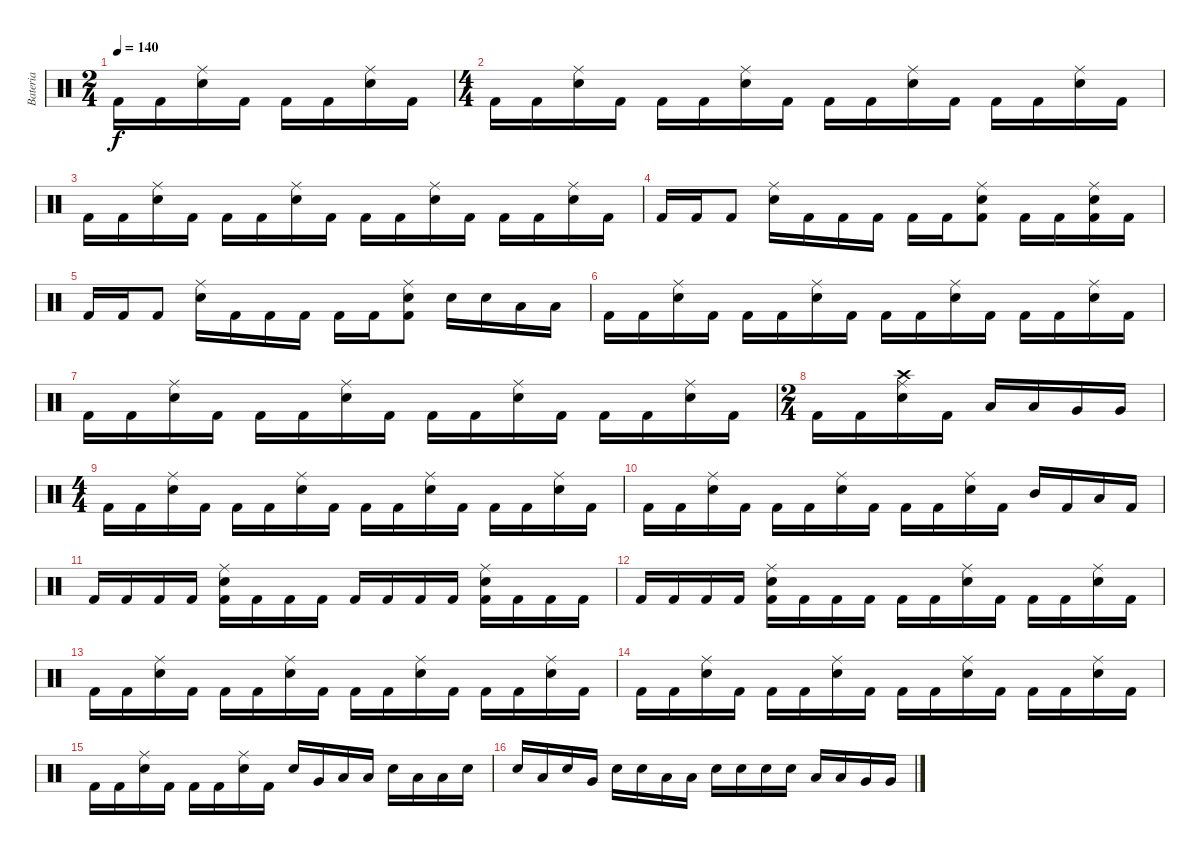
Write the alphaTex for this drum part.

\track ("Bateria" "Bateria") {instrument percussion}
\staff {score}
\articulation defaults
\ts (2 4)
\tempo 140
\clef neutral
\ks c "Kick (hit) 2".16{dy f} "Kick (hit) 2".16
("Electric Snare (hit)" "Ride (middle)").16 "Kick (hit) 2".16 "Kick (hit) 2".16 "Kick (hit) 2".16 ("Electric Snare (hit)" "Ride (middle)").16 "Kick (hit) 2".16 |
\ts (4 4)
"Kick (hit) 2".16 "Kick (hit) 2".16 ("Electric Snare (hit)" "Ride (middle)").16 "Kick (hit) 2".16 "Kick (hit) 2".16 "Kick (hit) 2".16 ("Electric Snare (hit)" "Ride (middle)").16 "Kick (hit) 2".16 "Kick (hit) 2".16 "Kick (hit) 2".16 ("Electric Snare (hit)" "Ride (middle)").16 "Kick (hit) 2".16 "Kick (hit) 2".16 "Kick (hit) 2".16 ("Electric Snare (hit)" "Ride (middle)").16 "Kick (hit) 2".16 |
"Kick (hit) 2".16 "Kick (hit) 2".16 ("Electric Snare (hit)" "Ride (middle)").16 "Kick (hit) 2".16 "Kick (hit) 2".16 "Kick (hit) 2".16 ("Electric Snare (hit)" "Ride (middle)").16 "Kick (hit) 2".16 "Kick (hit) 2".16 "Kick (hit) 2".16 ("Electric Snare (hit)" "Ride (middle)").16 "Kick (hit) 2".16 "Kick (hit) 2".16 "Kick (hit) 2".16 ("Electric Snare (hit)" "Ride (middle)").16 "Kick (hit) 2".16 |
"Kick (hit) 2".16 "Kick (hit) 2".16 "Kick (hit) 2".8 ("Electric Snare (hit)" "Ride (middle)").16 "Kick (hit) 2".16 "Kick (hit) 2".16 "Kick (hit) 2".16 "Kick (hit) 2".16 "Kick (hit) 2".16 ("Kick (hit) 2" "Electric Snare (hit)" "Ride (middle)").8 "Kick (hit) 2".16 "Kick (hit) 2".16 ("Kick (hit) 2" "Electric Snare (hit)" "Ride (middle)").16 "Kick (hit) 2".16 |
"Kick (hit) 2".16 "Kick (hit) 2".16 "Kick (hit) 2".8 ("Electric Snare (hit)" "Ride (middle)").16 "Kick (hit) 2".16 "Kick (hit) 2".16 "Kick (hit) 2".16 "Kick (hit) 2".16 "Kick (hit) 2".16 ("Kick (hit) 2" "Electric Snare (hit)" "Ride (middle)").8 "Electric Snare (hit)".16 "Electric Snare (hit)".16 "Low Tom (hit)".16 "Low Tom (hit)".16 |
"Kick (hit) 2".16 "Kick (hit) 2".16 ("Electric Snare (hit)" "Ride (middle)").16 "Kick (hit) 2".16 "Kick (hit) 2".16 "Kick (hit) 2".16 ("Electric Snare (hit)" "Ride (middle)").16 "Kick (hit) 2".16 "Kick (hit) 2".16 "Kick (hit) 2".16 ("Electric Snare (hit)" "Ride (middle)").16 "Kick (hit) 2".16 "Kick (hit) 2".16 "Kick (hit) 2".16 ("Electric Snare (hit)" "Ride (middle)").16 "Kick (hit) 2".16 |
"Kick (hit) 2".16 "Kick (hit) 2".16 ("Electric Snare (hit)" "Ride (middle)").16 "Kick (hit) 2".16 "Kick (hit) 2".16 "Kick (hit) 2".16 ("Electric Snare (hit)" "Ride (middle)").16 "Kick (hit) 2".16 "Kick (hit) 2".16 "Kick (hit) 2".16 ("Electric Snare (hit)" "Ride (middle)").16 "Kick (hit) 2".16 "Kick (hit) 2".16 "Kick (hit) 2".16 ("Electric Snare (hit)" "Ride (middle)").16 "Kick (hit) 2".16 |
\ts (2 4)
"Kick (hit) 2".16 "Kick (hit) 2".16 ("Electric Snare (hit)" "Ride (middle)" "Crash high (hit)").16 "Kick (hit) 2".16 "Low Tom (hit)".16 "Low Tom (hit)".16 "Very Low Tom (hit)".16 "Very Low Tom (hit)".16 |
\ts (4 4)
"Kick (hit) 2".16 "Kick (hit) 2".16 ("Electric Snare (hit)" "Ride (middle)").16 "Kick (hit) 2".16 "Kick (hit) 2".16 "Kick (hit) 2".16 ("Electric Snare (hit)" "Ride (middle)").16 "Kick (hit) 2".16 "Kick (hit) 2".16 "Kick (hit) 2".16 ("Electric Snare (hit)" "Ride (middle)").16 "Kick (hit) 2".16 "Kick (hit) 2".16 "Kick (hit) 2".16 ("Electric Snare (hit)" "Ride (middle)").16 "Kick (hit) 2".16 |
"Kick (hit) 2".16 "Kick (hit) 2".16 ("Electric Snare (hit)" "Ride (middle)").16 "Kick (hit) 2".16 "Kick (hit) 2".16 "Kick (hit) 2".16 ("Electric Snare (hit)" "Ride (middle)").16 "Kick (hit) 2".16 "Kick (hit) 2".16 "Kick (hit) 2".16 ("Electric Snare (hit)" "Ride (middle)").16 "Kick (hit) 2".16 "Mid Tom (hit)".16 "Kick (hit) 2".16 "Low Tom (hit)".16 "Kick (hit) 2".16 |
"Kick (hit) 2".16 "Kick (hit) 2".16 "Kick (hit) 2".16 "Kick (hit) 2".16 ("Kick (hit) 2" "Electric Snare (hit)" "Ride (middle)").16 "Kick (hit) 2".16 "Kick (hit) 2".16 "Kick (hit) 2".16 "Kick (hit) 2".16 "Kick (hit) 2".16 "Kick (hit) 2".16 "Kick (hit) 2".16 ("Kick (hit) 2" "Electric Snare (hit)" "Ride (middle)").16 "Kick (hit) 2".16 "Kick (hit) 2".16 "Kick (hit) 2".16 |
"Kick (hit) 2".16 "Kick (hit) 2".16 "Kick (hit) 2".16 "Kick (hit) 2".16 ("Kick (hit) 2" "Electric Snare (hit)" "Ride (middle)").16 "Kick (hit) 2".16 "Kick (hit) 2".16 "Kick (hit) 2".16 "Kick (hit) 2".16 "Kick (hit) 2".16 ("Electric Snare (hit)" "Ride (middle)").16 "Kick (hit) 2".16 "Kick (hit) 2".16 "Kick (hit) 2".16 ("Electric Snare (hit)" "Ride (middle)").16 "Kick (hit) 2".16 |
"Kick (hit) 2".16 "Kick (hit) 2".16 ("Electric Snare (hit)" "Ride (middle)").16 "Kick (hit) 2".16 "Kick (hit) 2".16 "Kick (hit) 2".16 ("Electric Snare (hit)" "Ride (middle)").16 "Kick (hit) 2".16 "Kick (hit) 2".16 "Kick (hit) 2".16 ("Electric Snare (hit)" "Ride (middle)").16 "Kick (hit) 2".16 "Kick (hit) 2".16 "Kick (hit) 2".16 ("Electric Snare (hit)" "Ride (middle)").16 "Kick (hit) 2".16 |
"Kick (hit) 2".16 "Kick (hit) 2".16 ("Electric Snare (hit)" "Ride (middle)").16 "Kick (hit) 2".16 "Kick (hit) 2".16 "Kick (hit) 2".16 ("Electric Snare (hit)" "Ride (middle)").16 "Kick (hit) 2".16 "Kick (hit) 2".16 "Kick (hit) 2".16 ("Electric Snare (hit)" "Ride (middle)").16 "Kick (hit) 2".16 "Kick (hit) 2".16 "Kick (hit) 2".16 ("Electric Snare (hit)" "Ride (middle)").16 "Kick (hit) 2".16 |
"Kick (hit) 2".16 "Kick (hit) 2".16 ("Electric Snare (hit)" "Ride (middle)").16 "Kick (hit) 2".16 "Kick (hit) 2".16 "Kick (hit) 2".16 ("Electric Snare (hit)" "Ride (middle)").16 "Kick (hit) 2".16 "Electric Snare (hit)".16 "Very Low Tom (hit)".16 "Low Floor Tom (hit)".16 "Low Tom (hit)".16 "Electric Snare (hit)".16 "Low Tom (hit)".16 "Low Tom (hit)".16 "Electric Snare (hit)".16 |
"Electric Snare (hit)".16 "Low Tom (hit)".16 "Electric Snare (hit)".16 "Very Low Tom (hit)".16 "Electric Snare (hit)".16 "Electric Snare (hit)".16 "Low Tom (hit)".16 "Low Tom (hit)".16 "Electric Snare (hit)".16 "Electric Snare (hit)".16 "Electric Snare (hit)".16 "Electric Snare (hit)".16 "Low Tom (hit)".16 "Low Tom (hit)".16 "Very Low Tom (hit)".16 "Very Low Tom (hit)".16
